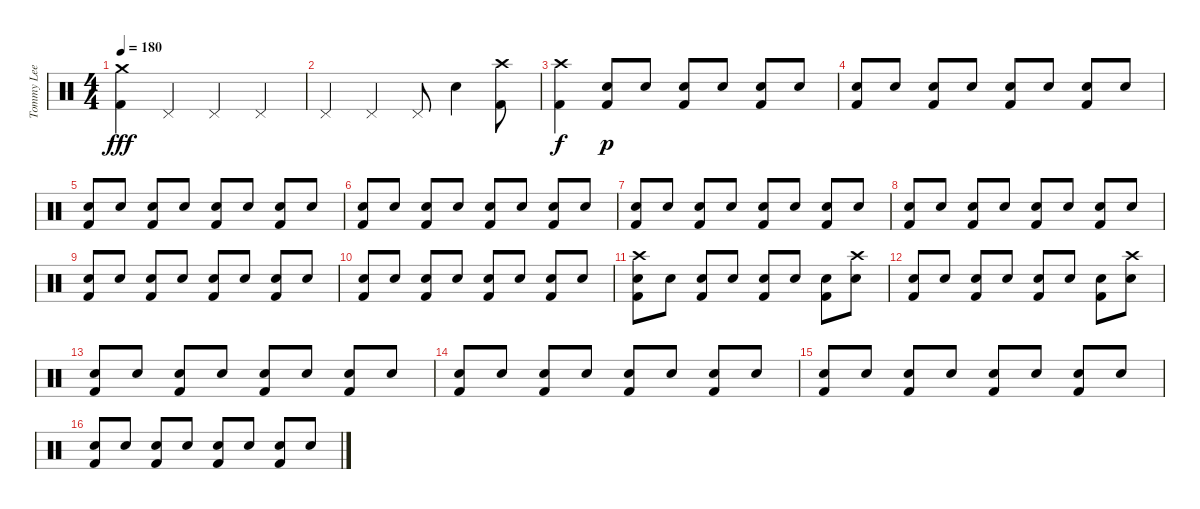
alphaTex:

\track ("Tommy Lee" "Tommy Lee") {instrument percussion}
\staff {score}
\articulation defaults
\ts (4 4)
\tempo 180
\clef neutral
\ks c
("Crash medium (hit)" "Kick (hit) 2").4{dy fff} "Pedal Hi-Hat (hit)".4 "Pedal Hi-Hat (hit)".4 "Pedal Hi-Hat (hit)".4 |
"Pedal Hi-Hat (hit)".4 "Pedal Hi-Hat (hit)".4 "Pedal Hi-Hat (hit)".8 "Electric Snare (hit)".4 ("Crash high (hit)" "Kick (hit) 2").8 |
("Crash high (hit)" "Kick (hit) 2").4{dy f} ("Electric Snare (hit)" "Kick (hit) 2").8{dy p} "Electric Snare (hit)".8 ("Electric Snare (hit)" "Kick (hit) 2").8 "Electric Snare (hit)".8 ("Electric Snare (hit)" "Kick (hit) 2").8 "Electric Snare (hit)".8 |
("Electric Snare (hit)" "Kick (hit) 2").8 "Electric Snare (hit)".8 ("Electric Snare (hit)" "Kick (hit) 2").8 "Electric Snare (hit)".8 ("Electric Snare (hit)" "Kick (hit) 2").8 "Electric Snare (hit)".8 ("Electric Snare (hit)" "Kick (hit) 2").8 "Electric Snare (hit)".8 |
("Electric Snare (hit)" "Kick (hit) 2").8 "Electric Snare (hit)".8 ("Electric Snare (hit)" "Kick (hit) 2").8 "Electric Snare (hit)".8 ("Electric Snare (hit)" "Kick (hit) 2").8 "Electric Snare (hit)".8 ("Electric Snare (hit)" "Kick (hit) 2").8 "Electric Snare (hit)".8 |
("Electric Snare (hit)" "Kick (hit) 2").8 "Electric Snare (hit)".8 ("Electric Snare (hit)" "Kick (hit) 2").8 "Electric Snare (hit)".8 ("Electric Snare (hit)" "Kick (hit) 2").8 "Electric Snare (hit)".8 ("Electric Snare (hit)" "Kick (hit) 2").8 "Electric Snare (hit)".8 |
("Electric Snare (hit)" "Kick (hit) 2").8 "Electric Snare (hit)".8 ("Electric Snare (hit)" "Kick (hit) 2").8 "Electric Snare (hit)".8 ("Electric Snare (hit)" "Kick (hit) 2").8 "Electric Snare (hit)".8 ("Electric Snare (hit)" "Kick (hit) 2").8 "Electric Snare (hit)".8 |
("Electric Snare (hit)" "Kick (hit) 2").8 "Electric Snare (hit)".8 ("Electric Snare (hit)" "Kick (hit) 2").8 "Electric Snare (hit)".8 ("Electric Snare (hit)" "Kick (hit) 2").8 "Electric Snare (hit)".8 ("Electric Snare (hit)" "Kick (hit) 2").8 "Electric Snare (hit)".8 |
("Electric Snare (hit)" "Kick (hit) 2").8 "Electric Snare (hit)".8 ("Electric Snare (hit)" "Kick (hit) 2").8 "Electric Snare (hit)".8 ("Electric Snare (hit)" "Kick (hit) 2").8 "Electric Snare (hit)".8 ("Electric Snare (hit)" "Kick (hit) 2").8 "Electric Snare (hit)".8 |
("Electric Snare (hit)" "Kick (hit) 2").8 "Electric Snare (hit)".8 ("Electric Snare (hit)" "Kick (hit) 2").8 "Electric Snare (hit)".8 ("Electric Snare (hit)" "Kick (hit) 2").8 "Electric Snare (hit)".8 ("Electric Snare (hit)" "Kick (hit) 2").8 "Electric Snare (hit)".8 |
("Crash high (hit)" "Electric Snare (hit)" "Kick (hit) 2").8 "Electric Snare (hit)".8 ("Electric Snare (hit)" "Kick (hit) 2").8 "Electric Snare (hit)".8 ("Electric Snare (hit)" "Kick (hit) 2").8 "Electric Snare (hit)".8 ("Electric Snare (hit)" "Kick (hit) 2").8 ("Crash high (hit)" "Electric Snare (hit)").8 |
("Electric Snare (hit)" "Kick (hit) 2").8 "Electric Snare (hit)".8 ("Electric Snare (hit)" "Kick (hit) 2").8 "Electric Snare (hit)".8 ("Electric Snare (hit)" "Kick (hit) 2").8 "Electric Snare (hit)".8 ("Electric Snare (hit)" "Kick (hit) 2").8 ("Crash high (hit)" "Electric Snare (hit)").8 |
("Electric Snare (hit)" "Kick (hit) 2").8 "Electric Snare (hit)".8 ("Electric Snare (hit)" "Kick (hit) 2").8 "Electric Snare (hit)".8 ("Electric Snare (hit)" "Kick (hit) 2").8 "Electric Snare (hit)".8 ("Electric Snare (hit)" "Kick (hit) 2").8 "Electric Snare (hit)".8 |
("Electric Snare (hit)" "Kick (hit) 2").8 "Electric Snare (hit)".8 ("Electric Snare (hit)" "Kick (hit) 2").8 "Electric Snare (hit)".8 ("Electric Snare (hit)" "Kick (hit) 2").8 "Electric Snare (hit)".8 ("Electric Snare (hit)" "Kick (hit) 2").8 "Electric Snare (hit)".8 |
("Electric Snare (hit)" "Kick (hit) 2").8 "Electric Snare (hit)".8 ("Electric Snare (hit)" "Kick (hit) 2").8 "Electric Snare (hit)".8 ("Electric Snare (hit)" "Kick (hit) 2").8 "Electric Snare (hit)".8 ("Electric Snare (hit)" "Kick (hit) 2").8 "Electric Snare (hit)".8 |
("Electric Snare (hit)" "Kick (hit) 2").8 "Electric Snare (hit)".8 ("Electric Snare (hit)" "Kick (hit) 2").8 "Electric Snare (hit)".8 ("Electric Snare (hit)" "Kick (hit) 2").8 "Electric Snare (hit)".8 ("Electric Snare (hit)" "Kick (hit) 2").8 "Electric Snare (hit)".8
